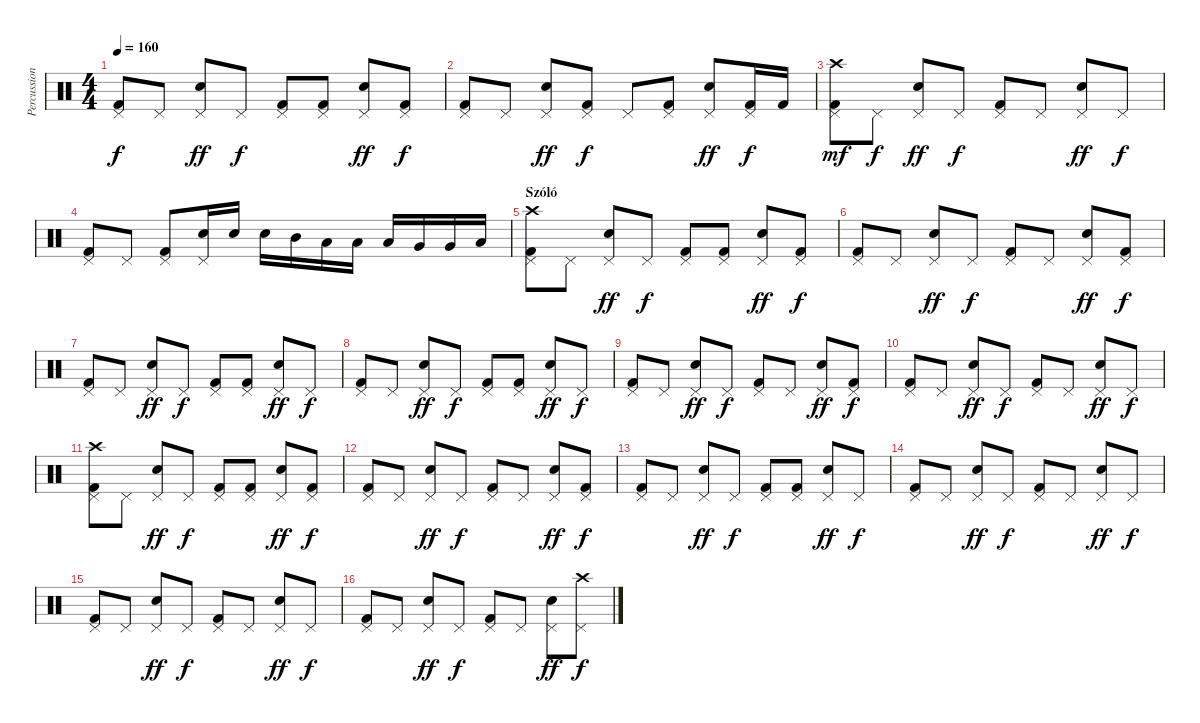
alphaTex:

\track ("Percussion" "Percussion") {instrument percussion}
\staff {score}
\articulation defaults
\ts (4 4)
\tempo 160
\clef neutral
\ks c
("Pedal Hi-Hat (hit)" "Kick (hit) 2").8{dy f} "Pedal Hi-Hat (hit)".8 ("Pedal Hi-Hat (hit)" "Electric Snare (hit)").8{dy ff} "Pedal Hi-Hat (hit)".8{dy f} ("Pedal Hi-Hat (hit)" "Kick (hit) 2").8 ("Pedal Hi-Hat (hit)" "Kick (hit) 2").8 ("Pedal Hi-Hat (hit)" "Electric Snare (hit)").8{dy ff} ("Pedal Hi-Hat (hit)" "Kick (hit) 2").8{dy f} |
("Pedal Hi-Hat (hit)" "Kick (hit) 2").8 "Pedal Hi-Hat (hit)".8 ("Pedal Hi-Hat (hit)" "Electric Snare (hit)").8{dy ff} ("Pedal Hi-Hat (hit)" "Kick (hit) 2").8{dy f} "Pedal Hi-Hat (hit)".8 ("Pedal Hi-Hat (hit)" "Kick (hit) 2").8 ("Pedal Hi-Hat (hit)" "Electric Snare (hit)").8{dy ff} ("Pedal Hi-Hat (hit)" "Kick (hit) 2").16{dy f} "Kick (hit) 2".16 |
("Pedal Hi-Hat (hit)" "Crash high (hit)" "Kick (hit) 2").8{dy mf} "Pedal Hi-Hat (hit)".8{dy f} ("Pedal Hi-Hat (hit)" "Electric Snare (hit)").8{dy ff} "Pedal Hi-Hat (hit)".8{dy f} ("Pedal Hi-Hat (hit)" "Kick (hit) 2").8 "Pedal Hi-Hat (hit)".8 ("Pedal Hi-Hat (hit)" "Electric Snare (hit)").8{dy ff} "Pedal Hi-Hat (hit)".8{dy f} |
("Pedal Hi-Hat (hit)" "Kick (hit) 2").8 "Pedal Hi-Hat (hit)".8 ("Pedal Hi-Hat (hit)" "Kick (hit) 2").8 ("Pedal Hi-Hat (hit)" "Electric Snare (hit)").16 "Electric Snare (hit)".16 "Electric Snare (hit)".16 "Mid Tom (hit)".16 "Low Tom (hit)".16 "Low Tom (hit)".16 "Low Tom (hit)".16 "Very Low Tom (hit)".16 "Very Low Tom (hit)".16 "Low Floor Tom (hit)".16 |
\section ("" "Szóló")
("Pedal Hi-Hat (hit)" "Crash high (hit)" "Kick (hit) 2").8 "Pedal Hi-Hat (hit)".8 ("Pedal Hi-Hat (hit)" "Electric Snare (hit)").8{dy ff} "Pedal Hi-Hat (hit)".8{dy f} ("Pedal Hi-Hat (hit)" "Kick (hit) 2").8 ("Pedal Hi-Hat (hit)" "Kick (hit) 2").8 ("Pedal Hi-Hat (hit)" "Electric Snare (hit)").8{dy ff} ("Pedal Hi-Hat (hit)" "Kick (hit) 2").8{dy f} |
("Pedal Hi-Hat (hit)" "Kick (hit) 2").8 "Pedal Hi-Hat (hit)".8 ("Pedal Hi-Hat (hit)" "Electric Snare (hit)").8{dy ff} "Pedal Hi-Hat (hit)".8{dy f} ("Pedal Hi-Hat (hit)" "Kick (hit) 2").8 "Pedal Hi-Hat (hit)".8 ("Pedal Hi-Hat (hit)" "Electric Snare (hit)").8{dy ff} ("Pedal Hi-Hat (hit)" "Kick (hit) 2").8{dy f} |
("Pedal Hi-Hat (hit)" "Kick (hit) 2").8 "Pedal Hi-Hat (hit)".8 ("Pedal Hi-Hat (hit)" "Electric Snare (hit)").8{dy ff} "Pedal Hi-Hat (hit)".8{dy f} ("Pedal Hi-Hat (hit)" "Kick (hit) 2").8 ("Pedal Hi-Hat (hit)" "Kick (hit) 2").8 ("Pedal Hi-Hat (hit)" "Electric Snare (hit)").8{dy ff} "Pedal Hi-Hat (hit)".8{dy f} |
("Pedal Hi-Hat (hit)" "Kick (hit) 2").8 "Pedal Hi-Hat (hit)".8 ("Pedal Hi-Hat (hit)" "Electric Snare (hit)").8{dy ff} "Pedal Hi-Hat (hit)".8{dy f} ("Pedal Hi-Hat (hit)" "Kick (hit) 2").8 ("Pedal Hi-Hat (hit)" "Kick (hit) 2").8 ("Pedal Hi-Hat (hit)" "Electric Snare (hit)").8{dy ff} "Pedal Hi-Hat (hit)".8{dy f} |
("Pedal Hi-Hat (hit)" "Kick (hit) 2").8 "Pedal Hi-Hat (hit)".8 ("Pedal Hi-Hat (hit)" "Electric Snare (hit)").8{dy ff} "Pedal Hi-Hat (hit)".8{dy f} ("Pedal Hi-Hat (hit)" "Kick (hit) 2").8 "Pedal Hi-Hat (hit)".8 ("Pedal Hi-Hat (hit)" "Electric Snare (hit)").8{dy ff} ("Pedal Hi-Hat (hit)" "Kick (hit) 2").8{dy f} |
("Pedal Hi-Hat (hit)" "Kick (hit) 2").8 "Pedal Hi-Hat (hit)".8 ("Pedal Hi-Hat (hit)" "Electric Snare (hit)").8{dy ff} "Pedal Hi-Hat (hit)".8{dy f} ("Pedal Hi-Hat (hit)" "Kick (hit) 2").8 "Pedal Hi-Hat (hit)".8 ("Pedal Hi-Hat (hit)" "Electric Snare (hit)").8{dy ff} "Pedal Hi-Hat (hit)".8{dy f} |
("Pedal Hi-Hat (hit)" "Crash high (hit)" "Kick (hit) 2").8 "Pedal Hi-Hat (hit)".8 ("Pedal Hi-Hat (hit)" "Electric Snare (hit)").8{dy ff} "Pedal Hi-Hat (hit)".8{dy f} ("Pedal Hi-Hat (hit)" "Kick (hit) 2").8 ("Pedal Hi-Hat (hit)" "Kick (hit) 2").8 ("Pedal Hi-Hat (hit)" "Electric Snare (hit)").8{dy ff} ("Pedal Hi-Hat (hit)" "Kick (hit) 2").8{dy f} |
("Pedal Hi-Hat (hit)" "Kick (hit) 2").8 "Pedal Hi-Hat (hit)".8 ("Pedal Hi-Hat (hit)" "Electric Snare (hit)").8{dy ff} "Pedal Hi-Hat (hit)".8{dy f} ("Pedal Hi-Hat (hit)" "Kick (hit) 2").8 "Pedal Hi-Hat (hit)".8 ("Pedal Hi-Hat (hit)" "Electric Snare (hit)").8{dy ff} ("Pedal Hi-Hat (hit)" "Kick (hit) 2").8{dy f} |
("Pedal Hi-Hat (hit)" "Kick (hit) 2").8 "Pedal Hi-Hat (hit)".8 ("Pedal Hi-Hat (hit)" "Electric Snare (hit)").8{dy ff} "Pedal Hi-Hat (hit)".8{dy f} ("Pedal Hi-Hat (hit)" "Kick (hit) 2").8 ("Pedal Hi-Hat (hit)" "Kick (hit) 2").8 ("Pedal Hi-Hat (hit)" "Electric Snare (hit)").8{dy ff} "Pedal Hi-Hat (hit)".8{dy f} |
("Pedal Hi-Hat (hit)" "Kick (hit) 2").8 "Pedal Hi-Hat (hit)".8 ("Pedal Hi-Hat (hit)" "Electric Snare (hit)").8{dy ff} "Pedal Hi-Hat (hit)".8{dy f} ("Pedal Hi-Hat (hit)" "Kick (hit) 2").8 "Pedal Hi-Hat (hit)".8 ("Pedal Hi-Hat (hit)" "Electric Snare (hit)").8{dy ff} "Pedal Hi-Hat (hit)".8{dy f} |
("Pedal Hi-Hat (hit)" "Kick (hit) 2").8 "Pedal Hi-Hat (hit)".8 ("Pedal Hi-Hat (hit)" "Electric Snare (hit)").8{dy ff} "Pedal Hi-Hat (hit)".8{dy f} ("Pedal Hi-Hat (hit)" "Kick (hit) 2").8 "Pedal Hi-Hat (hit)".8 ("Pedal Hi-Hat (hit)" "Electric Snare (hit)").8{dy ff} "Pedal Hi-Hat (hit)".8{dy f} |
("Pedal Hi-Hat (hit)" "Kick (hit) 2").8 "Pedal Hi-Hat (hit)".8 ("Pedal Hi-Hat (hit)" "Electric Snare (hit)").8{dy ff} "Pedal Hi-Hat (hit)".8{dy f} ("Pedal Hi-Hat (hit)" "Kick (hit) 2").8 "Pedal Hi-Hat (hit)".8 ("Pedal Hi-Hat (hit)" "Electric Snare (hit)").8{dy ff} ("Pedal Hi-Hat (hit)" "Crash high (hit)").8{dy f}
